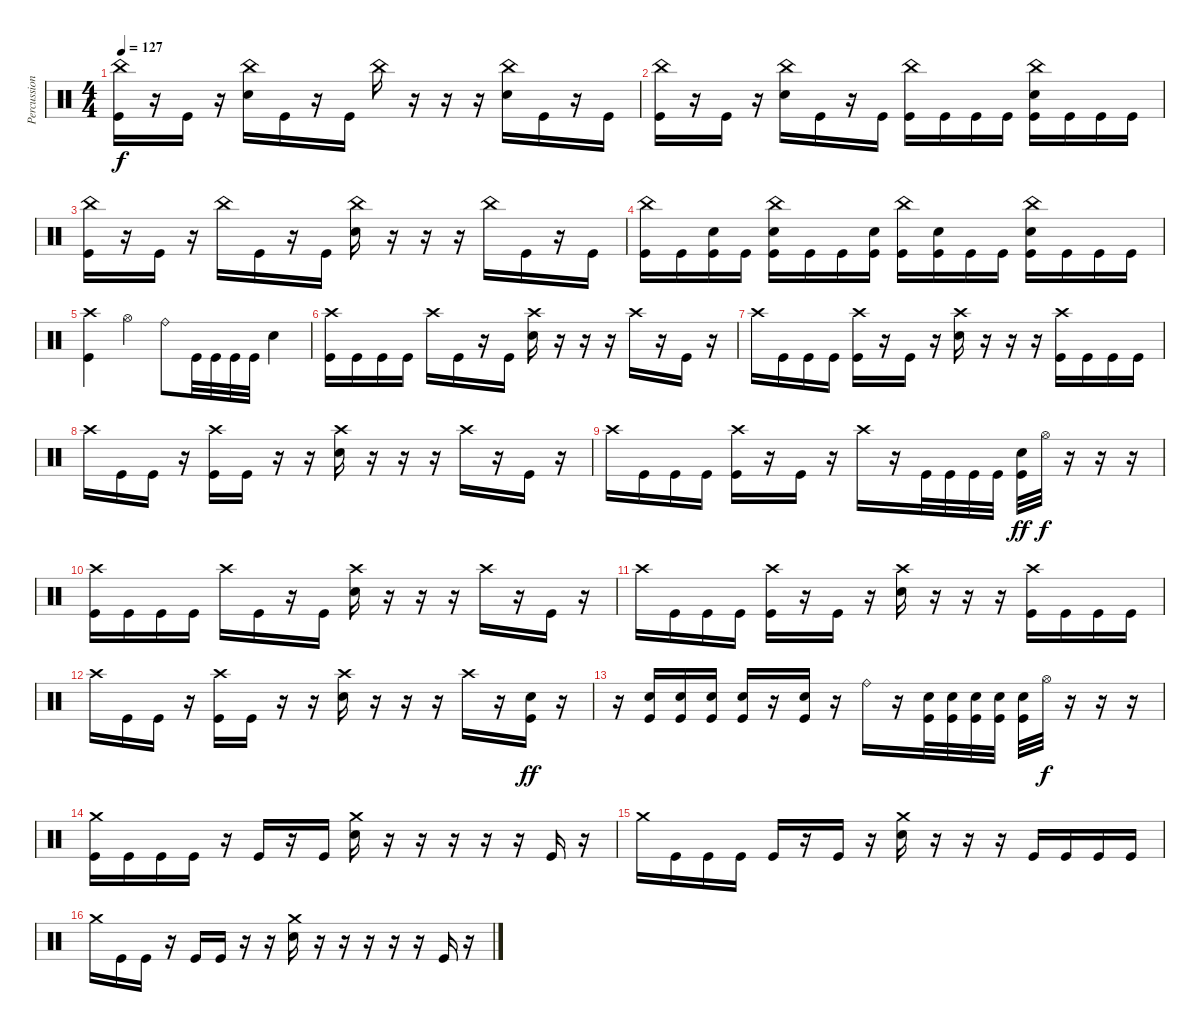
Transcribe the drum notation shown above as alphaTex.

\track ("Percussion" "Percussion") {instrument percussion}
\staff {score}
\articulation defaults
\ts (4 4)
\tempo 127
\clef neutral
\ks c
("China (hit)" "Kick (hit)").16{dy f} r.16 "Kick (hit)".16 r.16 ("China (hit)" "Snare (hit) 2").16 "Kick (hit)".16 r.16 "Kick (hit)".16 "China (hit)".16 r.16 r.16 r.16 ("China (hit)" "Snare (hit) 2").16 "Kick (hit)".16 r.16 "Kick (hit)".16 |
("China (hit)" "Kick (hit)").16 r.16 "Kick (hit)".16 r.16 ("China (hit)" "Snare (hit) 2").16 "Kick (hit)".16 r.16 "Kick (hit)".16 ("China (hit)" "Kick (hit)").16 "Kick (hit)".16 "Kick (hit)".16 "Kick (hit)".16 ("China (hit)" "Snare (hit) 2" "Kick (hit)").16 "Kick (hit)".16 "Kick (hit)".16 "Kick (hit)".16 |
("China (hit)" "Kick (hit)").16 r.16 "Kick (hit)".16 r.16 "China (hit)".16 "Kick (hit)".16 r.16 "Kick (hit)".16 ("China (hit)" "Snare (hit) 2").16 r.16 r.16 r.16 "China (hit)".16 "Kick (hit)".16 r.16 "Kick (hit)".16 |
("China (hit)" "Kick (hit)").16 "Kick (hit)".16 ("Snare (hit) 2" "Kick (hit)").16 "Kick (hit)".16 ("China (hit)" "Snare (hit) 2" "Kick (hit)").16 "Kick (hit)".16 "Kick (hit)".16 ("Snare (hit) 2" "Kick (hit)").16 ("China (hit)" "Kick (hit)").16 ("Snare (hit) 2" "Kick (hit)").16 "Kick (hit)".16 "Kick (hit)".16 ("China (hit)" "Snare (hit) 2" "Kick (hit)").16 "Kick (hit)".16 "Kick (hit)".16 "Kick (hit)".16 |
("Crash high (hit)" "Kick (hit)").4 "Hi-Hat (open)".4 "Ride (bell)".8 "Kick (hit)".32 "Kick (hit)".32 "Kick (hit)".32 "Kick (hit)".32 "Snare (hit) 2".4 |
("Crash high (hit)" "Kick (hit)").16 "Kick (hit)".16 "Kick (hit)".16 "Kick (hit)".16 "Crash high (hit)".16 "Kick (hit)".16 r.16 "Kick (hit)".16 ("Crash high (hit)" "Snare (hit) 2").16 r.16 r.16 r.16 "Crash high (hit)".16 r.16 "Kick (hit)".16 r.16 |
"Crash high (hit)".16 "Kick (hit)".16 "Kick (hit)".16 "Kick (hit)".16 ("Crash high (hit)" "Kick (hit)").16 r.16 "Kick (hit)".16 r.16 ("Crash high (hit)" "Snare (hit) 2").16 r.16 r.16 r.16 ("Crash high (hit)" "Kick (hit)").16 "Kick (hit)".16 "Kick (hit)".16 "Kick (hit)".16 |
"Crash high (hit)".16 "Kick (hit)".16 "Kick (hit)".16 r.16 ("Crash high (hit)" "Kick (hit)").16 "Kick (hit)".16 r.16 r.16 ("Crash high (hit)" "Snare (hit) 2").16 r.16 r.16 r.16 "Crash high (hit)".16 r.16 "Kick (hit)".16 r.16 |
"Crash high (hit)".16 "Kick (hit)".16 "Kick (hit)".16 "Kick (hit)".16 ("Crash high (hit)" "Kick (hit)").16 r.16 "Kick (hit)".16 r.16 "Crash high (hit)".16 r.16 "Kick (hit)".32 "Kick (hit)".32 "Kick (hit)".32 "Kick (hit)".32 ("Snare (hit) 2" "Kick (hit)").32{dy ff} "Hi-Hat (open)".32{dy f} r.16 r.16 r.16 |
("Crash high (hit)" "Kick (hit)").16 "Kick (hit)".16 "Kick (hit)".16 "Kick (hit)".16 "Crash high (hit)".16 "Kick (hit)".16 r.16 "Kick (hit)".16 ("Crash high (hit)" "Snare (hit) 2").16 r.16 r.16 r.16 "Crash high (hit)".16 r.16 "Kick (hit)".16 r.16 |
"Crash high (hit)".16 "Kick (hit)".16 "Kick (hit)".16 "Kick (hit)".16 ("Crash high (hit)" "Kick (hit)").16 r.16 "Kick (hit)".16 r.16 ("Crash high (hit)" "Snare (hit) 2").16 r.16 r.16 r.16 ("Crash high (hit)" "Kick (hit)").16 "Kick (hit)".16 "Kick (hit)".16 "Kick (hit)".16 |
"Crash high (hit)".16 "Kick (hit)".16 "Kick (hit)".16 r.16 ("Crash high (hit)" "Kick (hit)").16 "Kick (hit)".16 r.16 r.16 ("Crash high (hit)" "Snare (hit) 2").16 r.16 r.16 r.16 "Crash high (hit)".16 r.16 ("Snare (hit) 2" "Kick (hit)").16{dy ff} r.16 |
r.16 ("Snare (hit) 2" "Kick (hit)").16 ("Snare (hit) 2" "Kick (hit)").16 ("Snare (hit) 2" "Kick (hit)").16 ("Snare (hit) 2" "Kick (hit)").16 r.16 ("Snare (hit) 2" "Kick (hit)").16 r.16 "Ride (bell)".16 r.16 ("Snare (hit) 2" "Kick (hit)").32 ("Snare (hit) 2" "Kick (hit)").32 ("Snare (hit) 2" "Kick (hit)").32 ("Snare (hit) 2" "Kick (hit)").32 ("Snare (hit) 2" "Kick (hit)").32 "Hi-Hat (open)".32{dy f} r.16 r.16 r.16 |
("Crash medium (hit)" "Kick (hit)").16 "Kick (hit)".16 "Kick (hit)".16 "Kick (hit)".16 r.16 "Kick (hit)".16 r.16 "Kick (hit)".16 ("Crash medium (hit)" "Snare (hit) 2").16 r.16 r.16 r.16 r.16 r.16 "Kick (hit)".16 r.16 |
"Crash medium (hit)".16 "Kick (hit)".16 "Kick (hit)".16 "Kick (hit)".16 "Kick (hit)".16 r.16 "Kick (hit)".16 r.16 ("Crash medium (hit)" "Snare (hit) 2").16 r.16 r.16 r.16 "Kick (hit)".16 "Kick (hit)".16 "Kick (hit)".16 "Kick (hit)".16 |
"Crash medium (hit)".16 "Kick (hit)".16 "Kick (hit)".16 r.16 "Kick (hit)".16 "Kick (hit)".16 r.16 r.16 ("Crash medium (hit)" "Snare (hit) 2").16 r.16 r.16 r.16 r.16 r.16 "Kick (hit)".16 r.16
